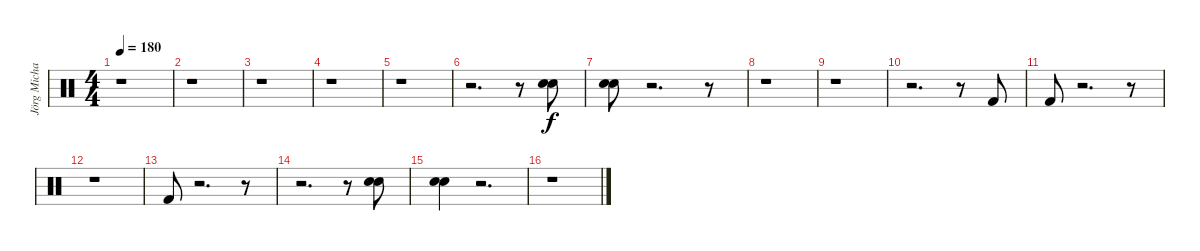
\track ("Jörg Michael" "Jörg Micha") {instrument percussion}
\staff {score}
\articulation defaults
\ts (4 4)
\tempo 180
\clef neutral
\ks c
r.1{dy f} |
r.1 |
r.1 |
r.1 |
r.1 |
r.2{d} r.8 ("Snare (hit) 2" "Electric Snare (hit)").8 |
("Snare (hit) 2" "Electric Snare (hit)").8 r.2{d} r.8 |
r.1 |
r.1 |
r.2{d} r.8 "Kick (hit) 2".8 |
"Kick (hit) 2".8 r.2{d} r.8 |
r.1 |
"Kick (hit) 2".8 r.2{d} r.8 |
r.2{d} r.8 ("Snare (hit) 2" "Electric Snare (hit)").8 |
("Snare (hit) 2" "Electric Snare (hit)").4 r.2{d} |
r.1
